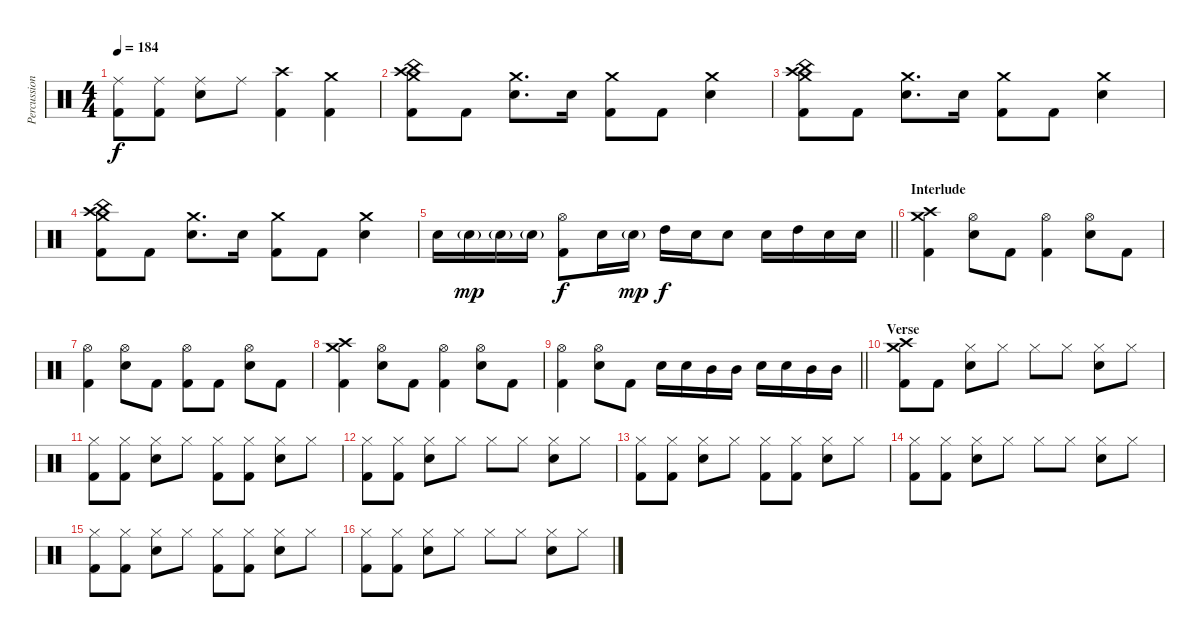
\track ("Percussion" "Percussion") {instrument percussion}
\staff {score}
\articulation defaults
\ts (4 4)
\tempo 184
\clef neutral
\ks c
("Ride (middle)" "Kick (hit) 2").8{dy f} ("Ride (middle)" "Kick (hit) 2").8 ("Ride (middle)" "Electric Snare (hit)").8 "Ride (middle)".8 ("Crash high (hit)" "Kick (hit) 2").4 ("Crash medium (hit)" "Kick (hit) 2").4 |
("Crash high (hit)" "Crash medium (hit)" "China (hit)" "Kick (hit) 2").8 "Kick (hit) 2".8 ("Crash medium (hit)" "Electric Snare (hit)").8{d} "Electric Snare (hit)".16 ("Crash medium (hit)" "Kick (hit) 2").8 "Kick (hit) 2".8 ("Crash medium (hit)" "Electric Snare (hit)").4 |
("Crash high (hit)" "Crash medium (hit)" "China (hit)" "Kick (hit) 2").8 "Kick (hit) 2".8 ("Crash medium (hit)" "Electric Snare (hit)").8{d} "Electric Snare (hit)".16 ("Crash medium (hit)" "Kick (hit) 2").8 "Kick (hit) 2".8 ("Crash medium (hit)" "Electric Snare (hit)").4 |
("Crash high (hit)" "Crash medium (hit)" "China (hit)" "Kick (hit) 2").8 "Kick (hit) 2".8 ("Crash medium (hit)" "Electric Snare (hit)").8{d} "Electric Snare (hit)".16 ("Crash medium (hit)" "Kick (hit) 2").8 "Kick (hit) 2".8 ("Crash medium (hit)" "Electric Snare (hit)").4 |
\barLineRight lightlight "Electric Snare (hit)".16 "Electric Snare (hit)"{g}.16{dy mp} "Electric Snare (hit)"{g}.16 "Electric Snare (hit)"{g}.16
("Hi-Hat (open)" "Kick (hit) 2").8{dy f} "Electric Snare (hit)".16 "Electric Snare (hit)"{g}.16{dy mp} "High Tom (hit)".16{dy f} "Electric Snare (hit)".16 "Electric Snare (hit)".8 "Electric Snare (hit)".16 "High Tom (hit)".16 "Electric Snare (hit)".16 "Electric Snare (hit)".16 |
\section ("" "Interlude")
("Crash high (hit)" "Crash medium (hit)" "Kick (hit) 2").4 ("Hi-Hat (open)" "Electric Snare (hit)").8 "Kick (hit) 2".8 ("Hi-Hat (open)" "Kick (hit) 2").4 ("Hi-Hat (open)" "Electric Snare (hit)").8 "Kick (hit) 2".8 |
("Hi-Hat (open)" "Kick (hit) 2").4 ("Hi-Hat (open)" "Electric Snare (hit)").8 "Kick (hit) 2".8 ("Hi-Hat (open)" "Kick (hit) 2").8 "Kick (hit) 2".8 ("Hi-Hat (open)" "Electric Snare (hit)").8 "Kick (hit) 2".8 |
("Crash high (hit)" "Crash medium (hit)" "Kick (hit) 2").4 ("Hi-Hat (open)" "Electric Snare (hit)").8 "Kick (hit) 2".8 ("Hi-Hat (open)" "Kick (hit) 2").4 ("Hi-Hat (open)" "Electric Snare (hit)").8 "Kick (hit) 2".8 |
\barLineRight lightlight
("Hi-Hat (open)" "Kick (hit) 2").4 ("Hi-Hat (open)" "Electric Snare (hit)").8 "Kick (hit) 2".8 "Electric Snare (hit)".16 "Electric Snare (hit)".16 "Mid Tom (hit)".16 "Mid Tom (hit)".16 "Electric Snare (hit)".16 "Electric Snare (hit)".16 "Mid Tom (hit)".16 "Mid Tom (hit)".16 |
\section ("" "Verse")
("Crash high (hit)" "Crash medium (hit)" "Kick (hit) 2").8 "Kick (hit) 2".8 ("Hi-Hat (closed)" "Electric Snare (hit)").8 "Hi-Hat (closed)".8 "Hi-Hat (closed)".8 "Hi-Hat (closed)".8 ("Hi-Hat (closed)" "Electric Snare (hit)").8 "Hi-Hat (closed)".8 |
("Hi-Hat (closed)" "Kick (hit) 2").8 ("Hi-Hat (closed)" "Kick (hit) 2").8 ("Hi-Hat (closed)" "Electric Snare (hit)").8 "Hi-Hat (closed)".8 ("Hi-Hat (closed)" "Kick (hit) 2").8 ("Hi-Hat (closed)" "Kick (hit) 2").8 ("Hi-Hat (closed)" "Electric Snare (hit)").8 "Hi-Hat (closed)".8 |
("Hi-Hat (closed)" "Kick (hit) 2").8 ("Hi-Hat (closed)" "Kick (hit) 2").8 ("Hi-Hat (closed)" "Electric Snare (hit)").8 "Hi-Hat (closed)".8 "Hi-Hat (closed)".8 "Hi-Hat (closed)".8 ("Hi-Hat (closed)" "Electric Snare (hit)").8 "Hi-Hat (closed)".8 |
("Hi-Hat (closed)" "Kick (hit) 2").8 ("Hi-Hat (closed)" "Kick (hit) 2").8 ("Hi-Hat (closed)" "Electric Snare (hit)").8 "Hi-Hat (closed)".8 ("Hi-Hat (closed)" "Kick (hit) 2").8 ("Hi-Hat (closed)" "Kick (hit) 2").8 ("Hi-Hat (closed)" "Electric Snare (hit)").8 "Hi-Hat (closed)".8 |
("Hi-Hat (closed)" "Kick (hit) 2").8 ("Hi-Hat (closed)" "Kick (hit) 2").8 ("Hi-Hat (closed)" "Electric Snare (hit)").8 "Hi-Hat (closed)".8 "Hi-Hat (closed)".8 "Hi-Hat (closed)".8 ("Hi-Hat (closed)" "Electric Snare (hit)").8 "Hi-Hat (closed)".8 |
("Hi-Hat (closed)" "Kick (hit) 2").8 ("Hi-Hat (closed)" "Kick (hit) 2").8 ("Hi-Hat (closed)" "Electric Snare (hit)").8 "Hi-Hat (closed)".8 ("Hi-Hat (closed)" "Kick (hit) 2").8 ("Hi-Hat (closed)" "Kick (hit) 2").8 ("Hi-Hat (closed)" "Electric Snare (hit)").8 "Hi-Hat (closed)".8 |
("Hi-Hat (closed)" "Kick (hit) 2").8 ("Hi-Hat (closed)" "Kick (hit) 2").8 ("Hi-Hat (closed)" "Electric Snare (hit)").8 "Hi-Hat (closed)".8 "Hi-Hat (closed)".8 "Hi-Hat (closed)".8 ("Hi-Hat (closed)" "Electric Snare (hit)").8 "Hi-Hat (closed)".8
